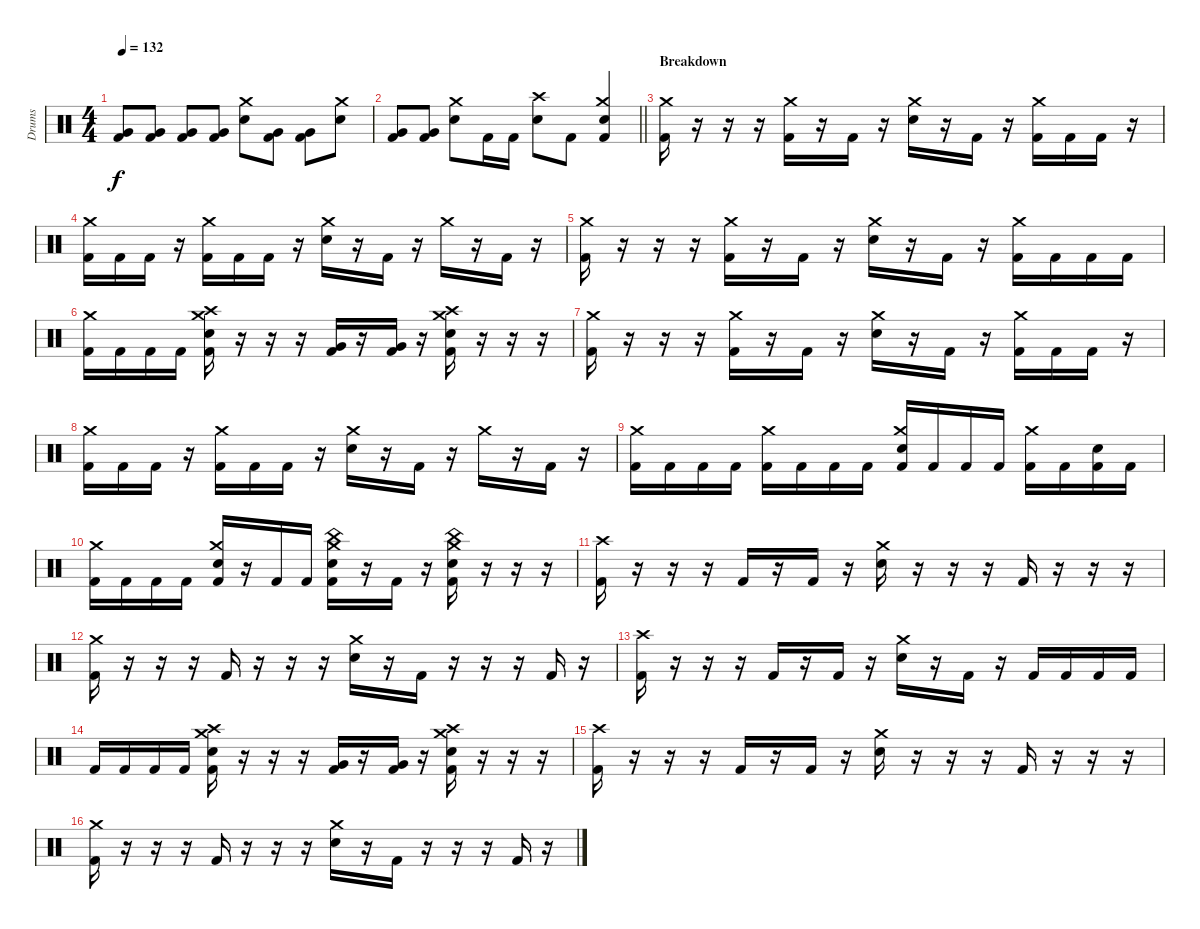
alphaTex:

\track ("Drums" "Drums") {instrument percussion}
\staff {score}
\articulation defaults
\ts (4 4)
\tempo 132
\clef neutral
\ks c
("Very Low Tom (hit)" "Kick (hit) 2").8{dy f} ("Very Low Tom (hit)" "Kick (hit) 2").8 ("Very Low Tom (hit)" "Kick (hit) 2").8 ("Very Low Tom (hit)" "Kick (hit) 2").8 ("Crash medium (hit)" "Electric Snare (hit)").8 ("Very Low Tom (hit)" "Kick (hit) 2").8 ("Very Low Tom (hit)" "Kick (hit) 2").8 ("Crash medium (hit)" "Electric Snare (hit)").8 |
\barLineRight lightlight
("Very Low Tom (hit)" "Kick (hit) 2").8 ("Very Low Tom (hit)" "Kick (hit) 2").8 ("Crash medium (hit)" "Electric Snare (hit)").8 "Kick (hit) 2".16 "Kick (hit) 2".16 ("Crash high (hit)" "Electric Snare (hit)").8 "Kick (hit) 2".8 ("Crash medium (hit)" "Electric Snare (hit)" "Kick (hit) 2").4 |
\section ("" "Breakdown")
("Crash medium (hit)" "Kick (hit) 2").16 r.16 r.16 r.16 ("Crash medium (hit)" "Kick (hit) 2").16 r.16 "Kick (hit) 2".16 r.16 ("Crash medium (hit)" "Electric Snare (hit)").16 r.16 "Kick (hit) 2".16 r.16 ("Crash medium (hit)" "Kick (hit) 2").16 "Kick (hit) 2".16 "Kick (hit) 2".16 r.16 |
("Crash medium (hit)" "Kick (hit) 2").16 "Kick (hit) 2".16 "Kick (hit) 2".16 r.16 ("Crash medium (hit)" "Kick (hit) 2").16 "Kick (hit) 2".16 "Kick (hit) 2".16 r.16 ("Crash medium (hit)" "Electric Snare (hit)").16 r.16 "Kick (hit) 2".16 r.16 "Crash medium (hit)".16 r.16 "Kick (hit) 2".16 r.16 |
("Crash medium (hit)" "Kick (hit) 2").16 r.16 r.16 r.16 ("Crash medium (hit)" "Kick (hit) 2").16 r.16 "Kick (hit) 2".16 r.16 ("Crash medium (hit)" "Electric Snare (hit)").16 r.16 "Kick (hit) 2".16 r.16 ("Crash medium (hit)" "Kick (hit) 2").16 "Kick (hit) 2".16 "Kick (hit) 2".16 "Kick (hit) 2".16 |
("Crash medium (hit)" "Kick (hit) 2").16 "Kick (hit) 2".16 "Kick (hit) 2".16 "Kick (hit) 2".16 ("Crash medium (hit)" "Crash high (hit)" "Electric Snare (hit)" "Kick (hit) 2").16 r.16 r.16 r.16 ("Very Low Tom (hit)" "Kick (hit) 2").16 r.16 ("Very Low Tom (hit)" "Kick (hit) 2").16 r.16 ("Crash medium (hit)" "Crash high (hit)" "Electric Snare (hit)" "Kick (hit) 2").16 r.16 r.16 r.16 |
("Crash medium (hit)" "Kick (hit) 2").16 r.16 r.16 r.16 ("Crash medium (hit)" "Kick (hit) 2").16 r.16 "Kick (hit) 2".16 r.16 ("Crash medium (hit)" "Electric Snare (hit)").16 r.16 "Kick (hit) 2".16 r.16 ("Crash medium (hit)" "Kick (hit) 2").16 "Kick (hit) 2".16 "Kick (hit) 2".16 r.16 |
("Crash medium (hit)" "Kick (hit) 2").16 "Kick (hit) 2".16 "Kick (hit) 2".16 r.16 ("Crash medium (hit)" "Kick (hit) 2").16 "Kick (hit) 2".16 "Kick (hit) 2".16 r.16 ("Crash medium (hit)" "Electric Snare (hit)").16 r.16 "Kick (hit) 2".16 r.16 "Crash medium (hit)".16 r.16 "Kick (hit) 2".16 r.16 |
("Crash medium (hit)" "Kick (hit) 2").16 "Kick (hit) 2".16 "Kick (hit) 2".16 "Kick (hit) 2".16 ("Crash medium (hit)" "Kick (hit) 2").16 "Kick (hit) 2".16 "Kick (hit) 2".16 "Kick (hit) 2".16 ("Crash medium (hit)" "Electric Snare (hit)" "Kick (hit) 2").16 "Kick (hit) 2".16 "Kick (hit) 2".16 "Kick (hit) 2".16 ("Crash medium (hit)" "Kick (hit) 2").16 "Kick (hit) 2".16 ("Electric Snare (hit)" "Kick (hit) 2").16 "Kick (hit) 2".16 |
("Crash medium (hit)" "Kick (hit) 2").16 "Kick (hit) 2".16 "Kick (hit) 2".16 "Kick (hit) 2".16 ("Crash medium (hit)" "Electric Snare (hit)" "Kick (hit) 2").16 r.16 "Kick (hit) 2".16 "Kick (hit) 2".16 ("Crash medium (hit)" "China (hit)" "Electric Snare (hit)" "Kick (hit) 2").16 r.16 "Kick (hit) 2".16 r.16 ("Crash medium (hit)" "China (hit)" "Electric Snare (hit)" "Kick (hit) 2").16 r.16 r.16 r.16 |
("Crash high (hit)" "Kick (hit) 2").16 r.16 r.16 r.16 "Kick (hit) 2".16 r.16 "Kick (hit) 2".16 r.16 ("Crash medium (hit)" "Electric Snare (hit)").16 r.16 r.16 r.16 "Kick (hit) 2".16 r.16 r.16 r.16 |
("Crash medium (hit)" "Kick (hit) 2").16 r.16 r.16 r.16 "Kick (hit) 2".16 r.16 r.16 r.16 ("Crash medium (hit)" "Electric Snare (hit)").16 r.16 "Kick (hit) 2".16 r.16 r.16 r.16 "Kick (hit) 2".16 r.16 |
("Crash high (hit)" "Kick (hit) 2").16 r.16 r.16 r.16 "Kick (hit) 2".16 r.16 "Kick (hit) 2".16 r.16 ("Crash medium (hit)" "Electric Snare (hit)").16 r.16 "Kick (hit) 2".16 r.16 "Kick (hit) 2".16 "Kick (hit) 2".16 "Kick (hit) 2".16 "Kick (hit) 2".16 |
"Kick (hit) 2".16 "Kick (hit) 2".16 "Kick (hit) 2".16 "Kick (hit) 2".16 ("Crash medium (hit)" "Crash high (hit)" "Electric Snare (hit)" "Kick (hit) 2").16 r.16 r.16 r.16 ("Very Low Tom (hit)" "Kick (hit) 2").16 r.16 ("Very Low Tom (hit)" "Kick (hit) 2").16 r.16 ("Crash medium (hit)" "Crash high (hit)" "Electric Snare (hit)" "Kick (hit) 2").16 r.16 r.16 r.16 |
("Crash high (hit)" "Kick (hit) 2").16 r.16 r.16 r.16 "Kick (hit) 2".16 r.16 "Kick (hit) 2".16 r.16 ("Crash medium (hit)" "Electric Snare (hit)").16 r.16 r.16 r.16 "Kick (hit) 2".16 r.16 r.16 r.16 |
("Crash medium (hit)" "Kick (hit) 2").16 r.16 r.16 r.16 "Kick (hit) 2".16 r.16 r.16 r.16 ("Crash medium (hit)" "Electric Snare (hit)").16 r.16 "Kick (hit) 2".16 r.16 r.16 r.16 "Kick (hit) 2".16 r.16
